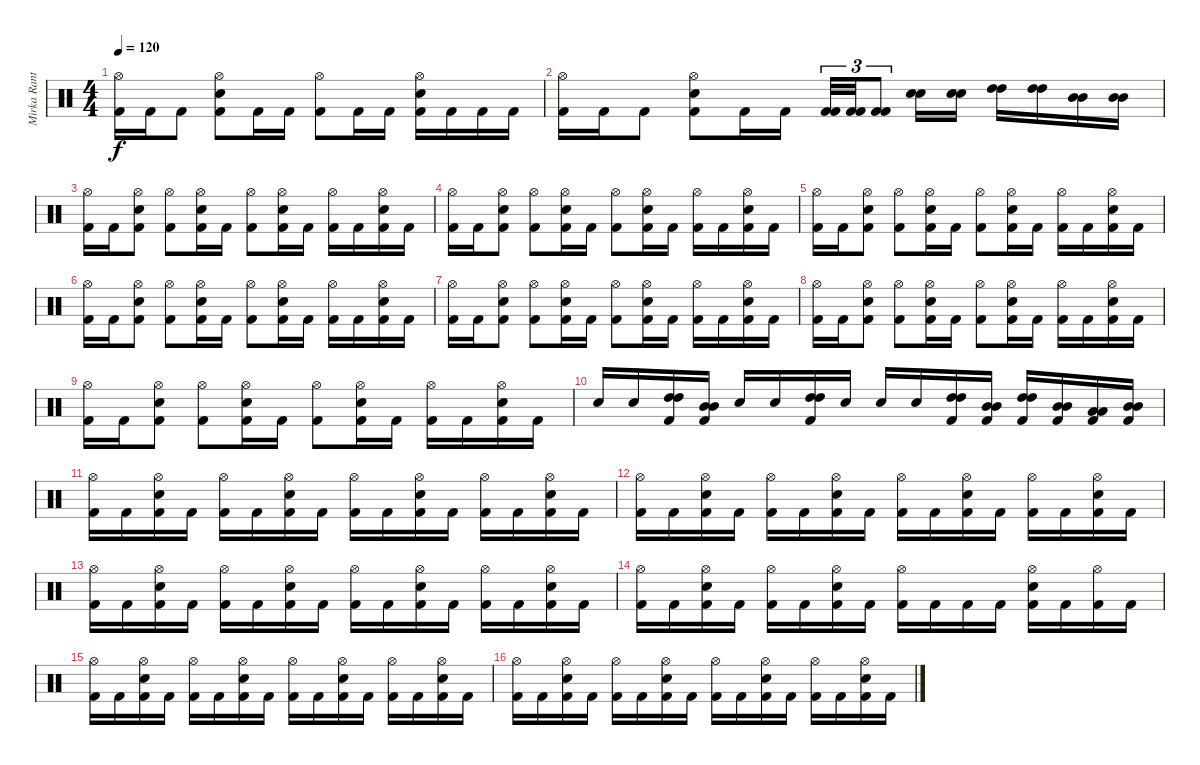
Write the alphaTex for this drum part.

\track ("Mirka Rantanen" "Mirka Rant") {instrument percussion}
\staff {score}
\articulation defaults
\ts (4 4)
\tempo 120
\clef neutral
\ks c
("Hi-Hat (open)" "Kick (hit) 2").16{dy f} "Kick (hit) 2".16 "Kick (hit) 2".8 ("Hi-Hat (open)" "Snare (hit) 2" "Kick (hit) 2").8 "Kick (hit) 2".16 "Kick (hit) 2".16 ("Hi-Hat (open)" "Kick (hit) 2").8 "Kick (hit) 2".16 "Kick (hit) 2".16 ("Snare (hit) 2" "Hi-Hat (open)" "Kick (hit) 2").16 "Kick (hit) 2".16 "Kick (hit) 2".16 "Kick (hit) 2".16 |
("Hi-Hat (open)" "Kick (hit) 2").16 "Kick (hit) 2".16 "Kick (hit) 2".8 ("Hi-Hat (open)" "Snare (hit) 2" "Kick (hit) 2").8 "Kick (hit) 2".16 "Kick (hit) 2".16 ("Kick (hit) 2" "Kick (hit) 2").32{tu (3 2)} ("Kick (hit) 2" "Kick (hit) 2").32{tu (3 2)} ("Kick (hit) 2" "Kick (hit) 2").8{tu (3 2)} ("Snare (hit) 2" "Snare (hit) 2").16 ("Snare (hit) 2" "Snare (hit) 2").16 ("High Tom (hit)" "High Tom (hit)").16 ("High Tom (hit)" "High Tom (hit)").16 ("Mid Tom (hit)" "Mid Tom (hit)").16 ("Mid Tom (hit)" "Mid Tom (hit)").16 |
("Hi-Hat (open)" "Kick (hit) 2").16 "Kick (hit) 2".16 ("Snare (hit) 2" "Hi-Hat (open)" "Kick (hit) 2").8 ("Hi-Hat (open)" "Kick (hit) 2").8 ("Snare (hit) 2" "Hi-Hat (open)" "Kick (hit) 2").16 "Kick (hit) 2".16 ("Hi-Hat (open)" "Kick (hit) 2").8 ("Snare (hit) 2" "Hi-Hat (open)" "Kick (hit) 2").16 "Kick (hit) 2".16 ("Hi-Hat (open)" "Kick (hit) 2").16 "Kick (hit) 2".16 ("Snare (hit) 2" "Hi-Hat (open)" "Kick (hit) 2").16 "Kick (hit) 2".16 |
("Hi-Hat (open)" "Kick (hit) 2").16 "Kick (hit) 2".16 ("Snare (hit) 2" "Hi-Hat (open)" "Kick (hit) 2").8 ("Hi-Hat (open)" "Kick (hit) 2").8 ("Snare (hit) 2" "Hi-Hat (open)" "Kick (hit) 2").16 "Kick (hit) 2".16 ("Hi-Hat (open)" "Kick (hit) 2").8 ("Snare (hit) 2" "Hi-Hat (open)" "Kick (hit) 2").16 "Kick (hit) 2".16 ("Hi-Hat (open)" "Kick (hit) 2").16 "Kick (hit) 2".16 ("Snare (hit) 2" "Hi-Hat (open)" "Kick (hit) 2").16 "Kick (hit) 2".16 |
("Hi-Hat (open)" "Kick (hit) 2").16 "Kick (hit) 2".16 ("Snare (hit) 2" "Hi-Hat (open)" "Kick (hit) 2").8 ("Hi-Hat (open)" "Kick (hit) 2").8 ("Snare (hit) 2" "Hi-Hat (open)" "Kick (hit) 2").16 "Kick (hit) 2".16 ("Hi-Hat (open)" "Kick (hit) 2").8 ("Snare (hit) 2" "Hi-Hat (open)" "Kick (hit) 2").16 "Kick (hit) 2".16 ("Hi-Hat (open)" "Kick (hit) 2").16 "Kick (hit) 2".16 ("Snare (hit) 2" "Hi-Hat (open)" "Kick (hit) 2").16 "Kick (hit) 2".16 |
("Hi-Hat (open)" "Kick (hit) 2").16 "Kick (hit) 2".16 ("Snare (hit) 2" "Hi-Hat (open)" "Kick (hit) 2").8 ("Hi-Hat (open)" "Kick (hit) 2").8 ("Snare (hit) 2" "Hi-Hat (open)" "Kick (hit) 2").16 "Kick (hit) 2".16 ("Hi-Hat (open)" "Kick (hit) 2").8 ("Snare (hit) 2" "Hi-Hat (open)" "Kick (hit) 2").16 "Kick (hit) 2".16 ("Hi-Hat (open)" "Kick (hit) 2").16 "Kick (hit) 2".16 ("Snare (hit) 2" "Hi-Hat (open)" "Kick (hit) 2").16 "Kick (hit) 2".16 |
("Hi-Hat (open)" "Kick (hit) 2").16 "Kick (hit) 2".16 ("Snare (hit) 2" "Hi-Hat (open)" "Kick (hit) 2").8 ("Hi-Hat (open)" "Kick (hit) 2").8 ("Snare (hit) 2" "Hi-Hat (open)" "Kick (hit) 2").16 "Kick (hit) 2".16 ("Hi-Hat (open)" "Kick (hit) 2").8 ("Snare (hit) 2" "Hi-Hat (open)" "Kick (hit) 2").16 "Kick (hit) 2".16 ("Hi-Hat (open)" "Kick (hit) 2").16 "Kick (hit) 2".16 ("Snare (hit) 2" "Hi-Hat (open)" "Kick (hit) 2").16 "Kick (hit) 2".16 |
("Hi-Hat (open)" "Kick (hit) 2").16 "Kick (hit) 2".16 ("Snare (hit) 2" "Hi-Hat (open)" "Kick (hit) 2").8 ("Hi-Hat (open)" "Kick (hit) 2").8 ("Snare (hit) 2" "Hi-Hat (open)" "Kick (hit) 2").16 "Kick (hit) 2".16 ("Hi-Hat (open)" "Kick (hit) 2").8 ("Snare (hit) 2" "Hi-Hat (open)" "Kick (hit) 2").16 "Kick (hit) 2".16 ("Hi-Hat (open)" "Kick (hit) 2").16 "Kick (hit) 2".16 ("Snare (hit) 2" "Hi-Hat (open)" "Kick (hit) 2").16 "Kick (hit) 2".16 |
("Hi-Hat (open)" "Kick (hit) 2").16 "Kick (hit) 2".16 ("Snare (hit) 2" "Hi-Hat (open)" "Kick (hit) 2").8 ("Hi-Hat (open)" "Kick (hit) 2").8 ("Snare (hit) 2" "Hi-Hat (open)" "Kick (hit) 2").16 "Kick (hit) 2".16 ("Hi-Hat (open)" "Kick (hit) 2").8 ("Snare (hit) 2" "Hi-Hat (open)" "Kick (hit) 2").16 "Kick (hit) 2".16 ("Hi-Hat (open)" "Kick (hit) 2").16 "Kick (hit) 2".16 ("Snare (hit) 2" "Hi-Hat (open)" "Kick (hit) 2").16 "Kick (hit) 2".16 |
"Snare (hit) 2".16 "Snare (hit) 2".16 ("High Tom (hit)" "High Tom (hit)" "Kick (hit) 2").16 ("Mid Tom (hit)" "Mid Tom (hit)" "Kick (hit) 2").16 "Snare (hit) 2".16 "Snare (hit) 2".16 ("High Tom (hit)" "High Tom (hit)" "Kick (hit) 2").16 "Snare (hit) 2".16 "Snare (hit) 2".16 "Snare (hit) 2".16 ("High Tom (hit)" "High Tom (hit)" "Kick (hit) 2").16 ("Mid Tom (hit)" "Mid Tom (hit)" "Kick (hit) 2").16 ("High Tom (hit)" "High Tom (hit)" "Kick (hit) 2").16 ("Mid Tom (hit)" "Mid Tom (hit)" "Kick (hit) 2").16 ("Low Tom (hit)" "Low Tom (hit)" "Kick (hit) 2").16 ("Mid Tom (hit)" "Mid Tom (hit)" "Kick (hit) 2").16 |
("Hi-Hat (open)" "Kick (hit) 2").16 "Kick (hit) 2".16 ("Hi-Hat (open)" "Snare (hit) 2" "Kick (hit) 2").16 "Kick (hit) 2".16 ("Hi-Hat (open)" "Kick (hit) 2").16 "Kick (hit) 2".16 ("Hi-Hat (open)" "Snare (hit) 2" "Kick (hit) 2").16 "Kick (hit) 2".16 ("Hi-Hat (open)" "Kick (hit) 2").16 "Kick (hit) 2".16 ("Hi-Hat (open)" "Snare (hit) 2" "Kick (hit) 2").16 "Kick (hit) 2".16 ("Hi-Hat (open)" "Kick (hit) 2").16 "Kick (hit) 2".16 ("Hi-Hat (open)" "Snare (hit) 2" "Kick (hit) 2").16 "Kick (hit) 2".16 |
("Hi-Hat (open)" "Kick (hit) 2").16 "Kick (hit) 2".16 ("Hi-Hat (open)" "Snare (hit) 2" "Kick (hit) 2").16 "Kick (hit) 2".16 ("Hi-Hat (open)" "Kick (hit) 2").16 "Kick (hit) 2".16 ("Hi-Hat (open)" "Snare (hit) 2" "Kick (hit) 2").16 "Kick (hit) 2".16 ("Hi-Hat (open)" "Kick (hit) 2").16 "Kick (hit) 2".16 ("Hi-Hat (open)" "Snare (hit) 2" "Kick (hit) 2").16 "Kick (hit) 2".16 ("Hi-Hat (open)" "Kick (hit) 2").16 "Kick (hit) 2".16 ("Hi-Hat (open)" "Snare (hit) 2" "Kick (hit) 2").16 "Kick (hit) 2".16 |
("Hi-Hat (open)" "Kick (hit) 2").16 "Kick (hit) 2".16 ("Hi-Hat (open)" "Snare (hit) 2" "Kick (hit) 2").16 "Kick (hit) 2".16 ("Hi-Hat (open)" "Kick (hit) 2").16 "Kick (hit) 2".16 ("Hi-Hat (open)" "Snare (hit) 2" "Kick (hit) 2").16 "Kick (hit) 2".16 ("Hi-Hat (open)" "Kick (hit) 2").16 "Kick (hit) 2".16 ("Hi-Hat (open)" "Snare (hit) 2" "Kick (hit) 2").16 "Kick (hit) 2".16 ("Hi-Hat (open)" "Kick (hit) 2").16 "Kick (hit) 2".16 ("Hi-Hat (open)" "Snare (hit) 2" "Kick (hit) 2").16 "Kick (hit) 2".16 |
("Hi-Hat (open)" "Kick (hit) 2").16 "Kick (hit) 2".16 ("Hi-Hat (open)" "Snare (hit) 2" "Kick (hit) 2").16 "Kick (hit) 2".16 ("Hi-Hat (open)" "Kick (hit) 2").16 "Kick (hit) 2".16 ("Hi-Hat (open)" "Snare (hit) 2" "Kick (hit) 2").16 "Kick (hit) 2".16 ("Hi-Hat (open)" "Kick (hit) 2").16 "Kick (hit) 2".16 "Kick (hit) 2".16 "Kick (hit) 2".16 ("Hi-Hat (open)" "Snare (hit) 2" "Kick (hit) 2").16 "Kick (hit) 2".16 ("Hi-Hat (open)" "Kick (hit) 2").16 "Kick (hit) 2".16 |
("Hi-Hat (open)" "Kick (hit) 2").16 "Kick (hit) 2".16 ("Hi-Hat (open)" "Snare (hit) 2" "Kick (hit) 2").16 "Kick (hit) 2".16 ("Hi-Hat (open)" "Kick (hit) 2").16 "Kick (hit) 2".16 ("Hi-Hat (open)" "Snare (hit) 2" "Kick (hit) 2").16 "Kick (hit) 2".16 ("Hi-Hat (open)" "Kick (hit) 2").16 "Kick (hit) 2".16 ("Hi-Hat (open)" "Snare (hit) 2" "Kick (hit) 2").16 "Kick (hit) 2".16 ("Hi-Hat (open)" "Kick (hit) 2").16 "Kick (hit) 2".16 ("Hi-Hat (open)" "Snare (hit) 2" "Kick (hit) 2").16 "Kick (hit) 2".16 |
("Hi-Hat (open)" "Kick (hit) 2").16 "Kick (hit) 2".16 ("Hi-Hat (open)" "Snare (hit) 2" "Kick (hit) 2").16 "Kick (hit) 2".16 ("Hi-Hat (open)" "Kick (hit) 2").16 "Kick (hit) 2".16 ("Hi-Hat (open)" "Snare (hit) 2" "Kick (hit) 2").16 "Kick (hit) 2".16 ("Hi-Hat (open)" "Kick (hit) 2").16 "Kick (hit) 2".16 ("Hi-Hat (open)" "Snare (hit) 2" "Kick (hit) 2").16 "Kick (hit) 2".16 ("Hi-Hat (open)" "Kick (hit) 2").16 "Kick (hit) 2".16 ("Hi-Hat (open)" "Snare (hit) 2" "Kick (hit) 2").16 "Kick (hit) 2".16
